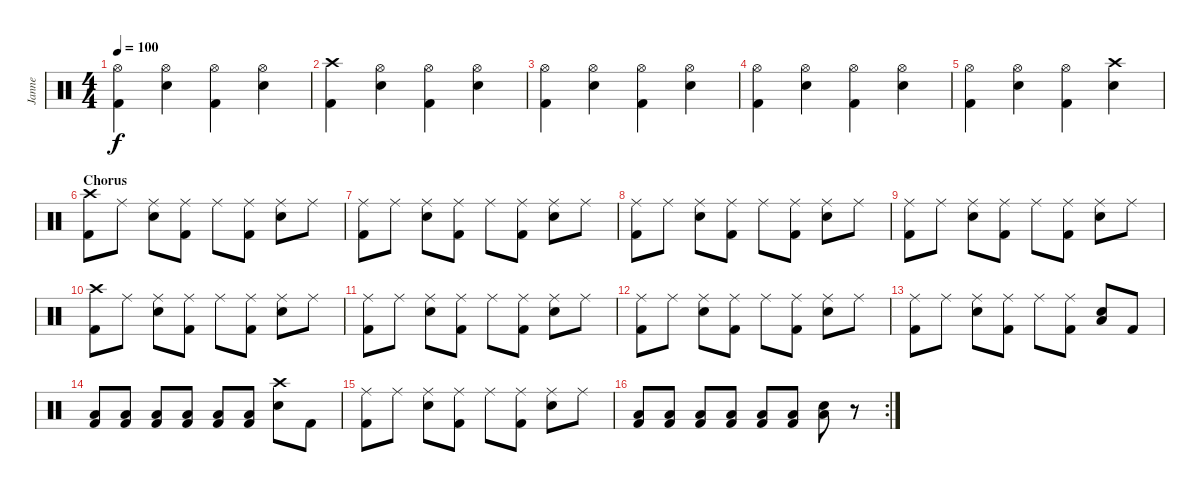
\track ("Janne" "Janne") {instrument percussion}
\staff {score}
\articulation defaults
\ts (4 4)
\tempo 100
\clef neutral
\ks c
("Hi-Hat (open)" "Kick (hit) 2").4{dy f} ("Hi-Hat (open)" "Electric Snare (hit)").4 ("Hi-Hat (open)" "Kick (hit) 2").4 ("Hi-Hat (open)" "Electric Snare (hit)").4 |
("Crash high (hit)" "Kick (hit) 2").4 ("Hi-Hat (open)" "Electric Snare (hit)").4 ("Hi-Hat (open)" "Kick (hit) 2").4 ("Hi-Hat (open)" "Electric Snare (hit)").4 |
("Hi-Hat (open)" "Kick (hit) 2").4 ("Hi-Hat (open)" "Electric Snare (hit)").4 ("Hi-Hat (open)" "Kick (hit) 2").4 ("Hi-Hat (open)" "Electric Snare (hit)").4 |
("Hi-Hat (open)" "Kick (hit) 2").4 ("Hi-Hat (open)" "Electric Snare (hit)").4 ("Hi-Hat (open)" "Kick (hit) 2").4 ("Hi-Hat (open)" "Electric Snare (hit)").4 |
("Hi-Hat (open)" "Kick (hit) 2").4 ("Hi-Hat (open)" "Electric Snare (hit)").4 ("Hi-Hat (open)" "Kick (hit) 2").4 ("Crash high (hit)" "Electric Snare (hit)").4 |
\section ("" "Chorus")
("Crash high (hit)" "Kick (hit) 2").8 "Ride (middle)".8 ("Ride (middle)" "Electric Snare (hit)").8 ("Ride (middle)" "Kick (hit) 2").8 "Ride (middle)".8 ("Ride (middle)" "Kick (hit) 2").8 ("Ride (middle)" "Electric Snare (hit)").8 "Ride (middle)".8 |
("Ride (middle)" "Kick (hit) 2").8 "Ride (middle)".8 ("Ride (middle)" "Electric Snare (hit)").8 ("Ride (middle)" "Kick (hit) 2").8 "Ride (middle)".8 ("Ride (middle)" "Kick (hit) 2").8 ("Ride (middle)" "Electric Snare (hit)").8 "Ride (middle)".8 |
("Ride (middle)" "Kick (hit) 2").8 "Ride (middle)".8 ("Ride (middle)" "Electric Snare (hit)").8 ("Ride (middle)" "Kick (hit) 2").8 "Ride (middle)".8 ("Ride (middle)" "Kick (hit) 2").8 ("Ride (middle)" "Electric Snare (hit)").8 "Ride (middle)".8 |
("Ride (middle)" "Kick (hit) 2").8 "Ride (middle)".8 ("Ride (middle)" "Electric Snare (hit)").8 ("Ride (middle)" "Kick (hit) 2").8 "Ride (middle)".8 ("Ride (middle)" "Kick (hit) 2").8 ("Ride (middle)" "Electric Snare (hit)").8 "Ride (middle)".8 |
("Crash high (hit)" "Kick (hit) 2").8 "Ride (middle)".8 ("Ride (middle)" "Electric Snare (hit)").8 ("Ride (middle)" "Kick (hit) 2").8 "Ride (middle)".8 ("Ride (middle)" "Kick (hit) 2").8 ("Ride (middle)" "Electric Snare (hit)").8 "Ride (middle)".8 |
("Ride (middle)" "Kick (hit) 2").8 "Ride (middle)".8 ("Ride (middle)" "Electric Snare (hit)").8 ("Ride (middle)" "Kick (hit) 2").8 "Ride (middle)".8 ("Ride (middle)" "Kick (hit) 2").8 ("Ride (middle)" "Electric Snare (hit)").8 "Ride (middle)".8 |
("Ride (middle)" "Kick (hit) 2").8 "Ride (middle)".8 ("Ride (middle)" "Electric Snare (hit)").8 ("Ride (middle)" "Kick (hit) 2").8 "Ride (middle)".8 ("Ride (middle)" "Kick (hit) 2").8 ("Ride (middle)" "Electric Snare (hit)").8 "Ride (middle)".8 |
("Ride (middle)" "Kick (hit) 2").8 "Ride (middle)".8 ("Ride (middle)" "Electric Snare (hit)").8 ("Ride (middle)" "Kick (hit) 2").8 "Ride (middle)".8 ("Ride (middle)" "Kick (hit) 2").8 ("Low Floor Tom (hit)" "Electric Snare (hit)").8 "Kick (hit) 2".8 |
("Low Floor Tom (hit)" "Kick (hit) 2").8 ("Low Floor Tom (hit)" "Kick (hit) 2").8 ("Low Floor Tom (hit)" "Kick (hit) 2").8 ("Low Floor Tom (hit)" "Kick (hit) 2").8 ("Low Floor Tom (hit)" "Kick (hit) 2").8 ("Low Floor Tom (hit)" "Kick (hit) 2").8 ("Crash high (hit)" "Electric Snare (hit)").8 "Kick (hit) 2".8 |
("Ride (middle)" "Kick (hit) 2").8 "Ride (middle)".8 ("Ride (middle)" "Electric Snare (hit)").8 ("Ride (middle)" "Kick (hit) 2").8 "Ride (middle)".8 ("Ride (middle)" "Kick (hit) 2").8 ("Ride (middle)" "Electric Snare (hit)").8 "Ride (middle)".8 |
\rc 2
("Low Floor Tom (hit)" "Kick (hit) 2").8 ("Low Floor Tom (hit)" "Kick (hit) 2").8 ("Low Floor Tom (hit)" "Kick (hit) 2").8 ("Low Floor Tom (hit)" "Kick (hit) 2").8 ("Low Floor Tom (hit)" "Kick (hit) 2").8 ("Low Floor Tom (hit)" "Kick (hit) 2").8 ("Low Floor Tom (hit)" "Electric Snare (hit)").8 r.8
